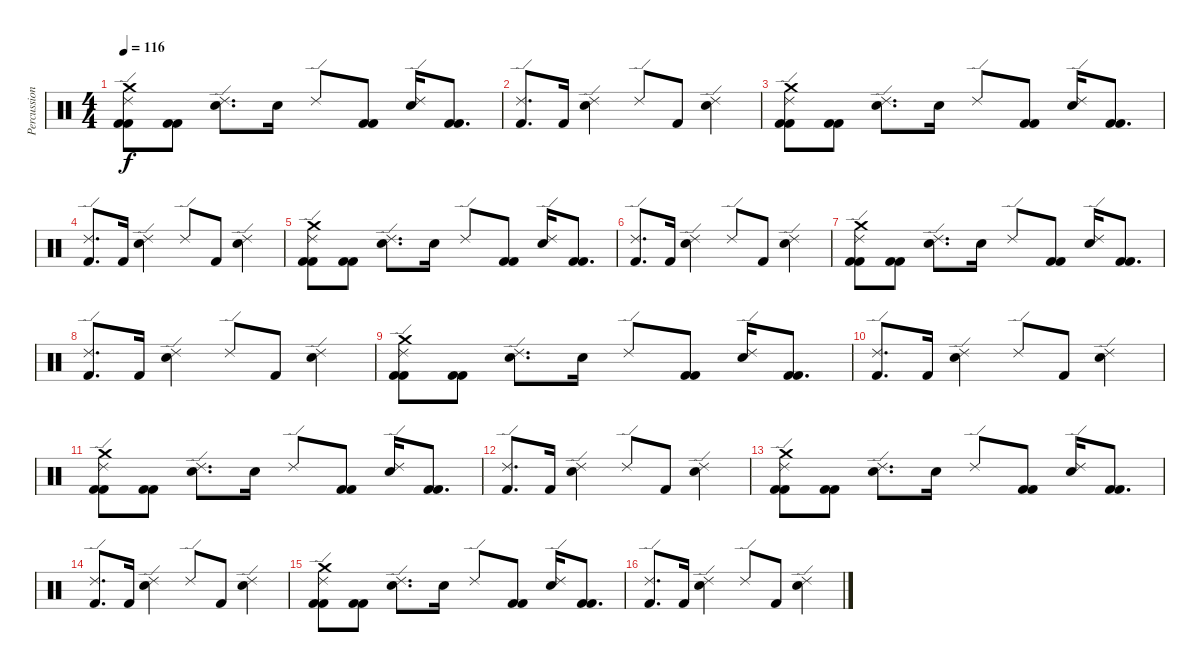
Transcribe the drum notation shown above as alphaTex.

\track ("Percussion" "Percussion") {instrument percussion}
\staff {score}
\articulation defaults
\ts (4 4)
\tempo 116
\clef neutral
\ks c
("Crash medium (hit)" "Ride (edge) 2" "Kick (hit) 2" "Kick (hit) 2").8{dy f} ("Kick (hit) 2" "Kick (hit) 2").8 ("Ride (edge) 2" "Snare (hit) 2").8{d} "Snare (hit) 2".16 "Ride (edge) 2".8 ("Kick (hit) 2" "Kick (hit) 2").8 ("Ride (edge) 2" "Snare (hit) 2").16 ("Kick (hit) 2" "Kick (hit) 2").8{d} |
("Ride (edge) 2" "Kick (hit) 2").8{d} "Kick (hit) 2".16 ("Ride (edge) 2" "Snare (hit) 2").4 "Ride (edge) 2".8 "Kick (hit) 2".8 ("Ride (edge) 2" "Snare (hit) 2").4 |
("Crash medium (hit)" "Ride (edge) 2" "Kick (hit) 2" "Kick (hit) 2").8 ("Kick (hit) 2" "Kick (hit) 2").8 ("Ride (edge) 2" "Snare (hit) 2").8{d} "Snare (hit) 2".16 "Ride (edge) 2".8 ("Kick (hit) 2" "Kick (hit) 2").8 ("Ride (edge) 2" "Snare (hit) 2").16 ("Kick (hit) 2" "Kick (hit) 2").8{d} |
("Ride (edge) 2" "Kick (hit) 2").8{d} "Kick (hit) 2".16 ("Ride (edge) 2" "Snare (hit) 2").4 "Ride (edge) 2".8 "Kick (hit) 2".8 ("Ride (edge) 2" "Snare (hit) 2").4 |
("Crash medium (hit)" "Ride (edge) 2" "Kick (hit) 2" "Kick (hit) 2").8 ("Kick (hit) 2" "Kick (hit) 2").8 ("Ride (edge) 2" "Snare (hit) 2").8{d} "Snare (hit) 2".16 "Ride (edge) 2".8 ("Kick (hit) 2" "Kick (hit) 2").8 ("Ride (edge) 2" "Snare (hit) 2").16 ("Kick (hit) 2" "Kick (hit) 2").8{d} |
("Ride (edge) 2" "Kick (hit) 2").8{d} "Kick (hit) 2".16 ("Ride (edge) 2" "Snare (hit) 2").4 "Ride (edge) 2".8 "Kick (hit) 2".8 ("Ride (edge) 2" "Snare (hit) 2").4 |
("Crash medium (hit)" "Ride (edge) 2" "Kick (hit) 2" "Kick (hit) 2").8 ("Kick (hit) 2" "Kick (hit) 2").8 ("Ride (edge) 2" "Snare (hit) 2").8{d} "Snare (hit) 2".16 "Ride (edge) 2".8 ("Kick (hit) 2" "Kick (hit) 2").8 ("Ride (edge) 2" "Snare (hit) 2").16 ("Kick (hit) 2" "Kick (hit) 2").8{d} |
("Ride (edge) 2" "Kick (hit) 2").8{d} "Kick (hit) 2".16 ("Ride (edge) 2" "Snare (hit) 2").4 "Ride (edge) 2".8 "Kick (hit) 2".8 ("Ride (edge) 2" "Snare (hit) 2").4 |
("Crash medium (hit)" "Ride (edge) 2" "Kick (hit) 2" "Kick (hit) 2").8 ("Kick (hit) 2" "Kick (hit) 2").8 ("Ride (edge) 2" "Snare (hit) 2").8{d} "Snare (hit) 2".16 "Ride (edge) 2".8 ("Kick (hit) 2" "Kick (hit) 2").8 ("Ride (edge) 2" "Snare (hit) 2").16 ("Kick (hit) 2" "Kick (hit) 2").8{d} |
("Ride (edge) 2" "Kick (hit) 2").8{d} "Kick (hit) 2".16 ("Ride (edge) 2" "Snare (hit) 2").4 "Ride (edge) 2".8 "Kick (hit) 2".8 ("Ride (edge) 2" "Snare (hit) 2").4 |
("Crash medium (hit)" "Ride (edge) 2" "Kick (hit) 2" "Kick (hit) 2").8 ("Kick (hit) 2" "Kick (hit) 2").8 ("Ride (edge) 2" "Snare (hit) 2").8{d} "Snare (hit) 2".16 "Ride (edge) 2".8 ("Kick (hit) 2" "Kick (hit) 2").8 ("Ride (edge) 2" "Snare (hit) 2").16 ("Kick (hit) 2" "Kick (hit) 2").8{d} |
("Ride (edge) 2" "Kick (hit) 2").8{d} "Kick (hit) 2".16 ("Ride (edge) 2" "Snare (hit) 2").4 "Ride (edge) 2".8 "Kick (hit) 2".8 ("Ride (edge) 2" "Snare (hit) 2").4 |
("Crash medium (hit)" "Ride (edge) 2" "Kick (hit) 2" "Kick (hit) 2").8 ("Kick (hit) 2" "Kick (hit) 2").8 ("Ride (edge) 2" "Snare (hit) 2").8{d} "Snare (hit) 2".16 "Ride (edge) 2".8 ("Kick (hit) 2" "Kick (hit) 2").8 ("Ride (edge) 2" "Snare (hit) 2").16 ("Kick (hit) 2" "Kick (hit) 2").8{d} |
("Ride (edge) 2" "Kick (hit) 2").8{d} "Kick (hit) 2".16 ("Ride (edge) 2" "Snare (hit) 2").4 "Ride (edge) 2".8 "Kick (hit) 2".8 ("Ride (edge) 2" "Snare (hit) 2").4 |
("Crash medium (hit)" "Ride (edge) 2" "Kick (hit) 2" "Kick (hit) 2").8 ("Kick (hit) 2" "Kick (hit) 2").8 ("Ride (edge) 2" "Snare (hit) 2").8{d} "Snare (hit) 2".16 "Ride (edge) 2".8 ("Kick (hit) 2" "Kick (hit) 2").8 ("Ride (edge) 2" "Snare (hit) 2").16 ("Kick (hit) 2" "Kick (hit) 2").8{d} |
("Ride (edge) 2" "Kick (hit) 2").8{d} "Kick (hit) 2".16 ("Ride (edge) 2" "Snare (hit) 2").4 "Ride (edge) 2".8 "Kick (hit) 2".8 ("Ride (edge) 2" "Snare (hit) 2").4
